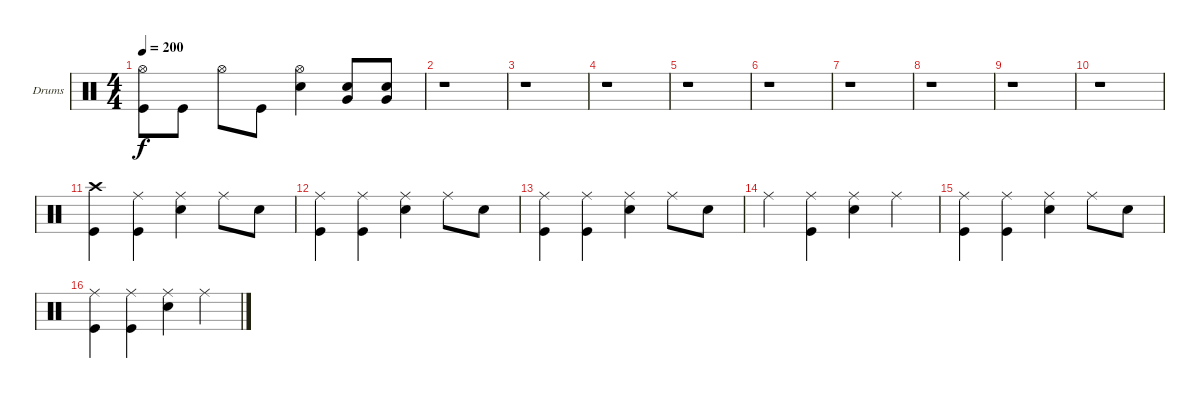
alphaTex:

\bracketExtendMode groupsimilarinstruments
\firstSystemTrackNameOrientation horizontal
\otherSystemsTrackNameOrientation horizontal
\track ("Drumkit" "Drums") {instrument percussion}
\staff {score}
\articulation defaults
\ts (4 4)
\tempo 200
\clef neutral
\ks c
("Hi-Hat (open)" "Kick (hit)").8{dy f} "Kick (hit)".8 "Hi-Hat (open)".8 "Kick (hit)".8 ("Hi-Hat (open)" "Snare (hit) 2").4 ("Snare (hit) 2" "Very Low Tom (hit)").8 ("Snare (hit) 2" "Very Low Tom (hit)").8 |
r.1 |
r.1 |
r.1 |
r.1 |
r.1 |
r.1 |
r.1 |
r.1 |
r.1 |
("Crash high (hit)" "Kick (hit)").4 ("Ride (middle)" "Kick (hit)").4 ("Ride (middle)" "Snare (hit) 2").4 "Ride (middle)".8 "Snare (hit) 2".8 |
("Ride (middle)" "Kick (hit)").4 ("Ride (middle)" "Kick (hit)").4 ("Ride (middle)" "Snare (hit) 2").4 "Ride (middle)".8 "Snare (hit) 2".8 |
("Ride (middle)" "Kick (hit)").4 ("Ride (middle)" "Kick (hit)").4 ("Ride (middle)" "Snare (hit) 2").4 "Ride (middle)".8 "Snare (hit) 2".8 |
"Ride (middle)".4 ("Ride (middle)" "Kick (hit)").4 ("Ride (middle)" "Snare (hit) 2").4 "Ride (middle)".4 |
("Ride (middle)" "Kick (hit)").4 ("Ride (middle)" "Kick (hit)").4 ("Ride (middle)" "Snare (hit) 2").4 "Ride (middle)".8 "Snare (hit) 2".8 |
("Ride (middle)" "Kick (hit)").4 ("Ride (middle)" "Kick (hit)").4 ("Ride (middle)" "Snare (hit) 2").4 "Ride (middle)".4
